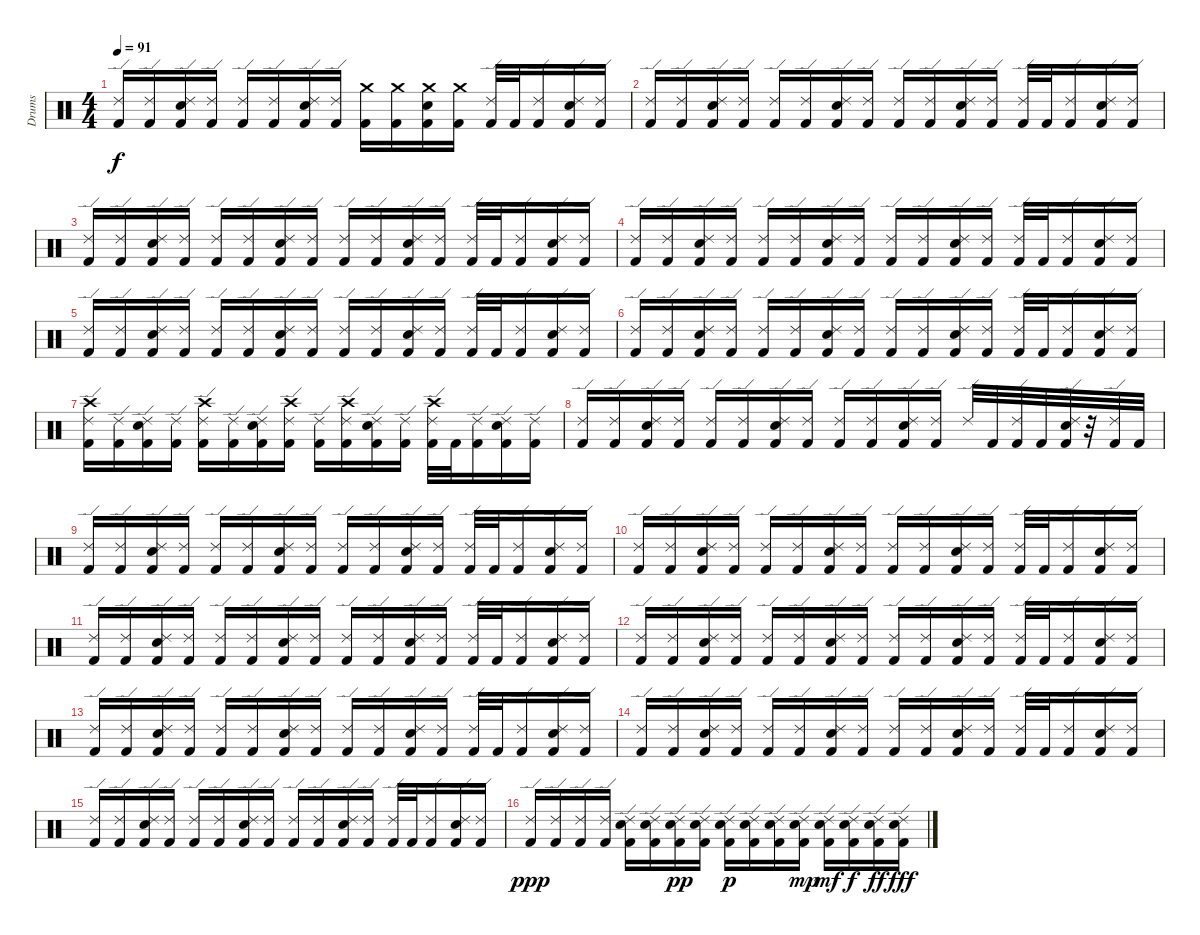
\track ("Drums" "Drums") {instrument percussion}
\staff {score}
\articulation defaults
\ts (4 4)
\tempo 91
\clef neutral
\ks c
("Ride (edge) 2" "Kick (hit) 2").16{dy f} ("Ride (edge) 2" "Kick (hit) 2").16 ("Ride (edge) 2" "Snare (hit) 2" "Kick (hit) 2").16 ("Ride (edge) 2" "Kick (hit) 2").16 ("Ride (edge) 2" "Kick (hit) 2").16 ("Ride (edge) 2" "Kick (hit) 2").16 ("Ride (edge) 2" "Snare (hit) 2" "Kick (hit) 2").16 ("Ride (edge) 2" "Kick (hit) 2").16 ("Crash medium (hit)" "Kick (hit) 2").16 ("Crash medium (hit)" "Kick (hit) 2").16 ("Crash medium (hit)" "Snare (hit) 2" "Kick (hit) 2").16 ("Crash medium (hit)" "Kick (hit) 2").16 ("Ride (edge) 2" "Kick (hit) 2").32 "Kick (hit) 2".32 ("Ride (edge) 2" "Kick (hit) 2").16 ("Ride (edge) 2" "Snare (hit) 2" "Kick (hit) 2").16 ("Ride (edge) 2" "Kick (hit) 2").16 |
("Ride (edge) 2" "Kick (hit) 2").16 ("Ride (edge) 2" "Kick (hit) 2").16 ("Ride (edge) 2" "Snare (hit) 2" "Kick (hit) 2").16 ("Ride (edge) 2" "Kick (hit) 2").16 ("Ride (edge) 2" "Kick (hit) 2").16 ("Ride (edge) 2" "Kick (hit) 2").16 ("Ride (edge) 2" "Snare (hit) 2" "Kick (hit) 2").16 ("Ride (edge) 2" "Kick (hit) 2").16 ("Ride (edge) 2" "Kick (hit) 2").16 ("Ride (edge) 2" "Kick (hit) 2").16 ("Ride (edge) 2" "Snare (hit) 2" "Kick (hit) 2").16 ("Ride (edge) 2" "Kick (hit) 2").16 ("Ride (edge) 2" "Kick (hit) 2").32 "Kick (hit) 2".32 ("Ride (edge) 2" "Kick (hit) 2").16 ("Ride (edge) 2" "Snare (hit) 2" "Kick (hit) 2").16 ("Ride (edge) 2" "Kick (hit) 2").16 |
("Ride (edge) 2" "Kick (hit) 2").16 ("Ride (edge) 2" "Kick (hit) 2").16 ("Ride (edge) 2" "Snare (hit) 2" "Kick (hit) 2").16 ("Ride (edge) 2" "Kick (hit) 2").16 ("Ride (edge) 2" "Kick (hit) 2").16 ("Ride (edge) 2" "Kick (hit) 2").16 ("Ride (edge) 2" "Snare (hit) 2" "Kick (hit) 2").16 ("Ride (edge) 2" "Kick (hit) 2").16 ("Ride (edge) 2" "Kick (hit) 2").16 ("Ride (edge) 2" "Kick (hit) 2").16 ("Ride (edge) 2" "Snare (hit) 2" "Kick (hit) 2").16 ("Ride (edge) 2" "Kick (hit) 2").16 ("Ride (edge) 2" "Kick (hit) 2").32 "Kick (hit) 2".32 ("Ride (edge) 2" "Kick (hit) 2").16 ("Ride (edge) 2" "Snare (hit) 2" "Kick (hit) 2").16 ("Ride (edge) 2" "Kick (hit) 2").16 |
("Ride (edge) 2" "Kick (hit) 2").16 ("Ride (edge) 2" "Kick (hit) 2").16 ("Ride (edge) 2" "Snare (hit) 2" "Kick (hit) 2").16 ("Ride (edge) 2" "Kick (hit) 2").16 ("Ride (edge) 2" "Kick (hit) 2").16 ("Ride (edge) 2" "Kick (hit) 2").16 ("Ride (edge) 2" "Snare (hit) 2" "Kick (hit) 2").16 ("Ride (edge) 2" "Kick (hit) 2").16 ("Ride (edge) 2" "Kick (hit) 2").16 ("Ride (edge) 2" "Kick (hit) 2").16 ("Ride (edge) 2" "Snare (hit) 2" "Kick (hit) 2").16 ("Ride (edge) 2" "Kick (hit) 2").16 ("Ride (edge) 2" "Kick (hit) 2").32 "Kick (hit) 2".32 ("Ride (edge) 2" "Kick (hit) 2").16 ("Ride (edge) 2" "Snare (hit) 2" "Kick (hit) 2").16 ("Ride (edge) 2" "Kick (hit) 2").16 |
("Ride (edge) 2" "Kick (hit) 2").16 ("Ride (edge) 2" "Kick (hit) 2").16 ("Ride (edge) 2" "Snare (hit) 2" "Kick (hit) 2").16 ("Ride (edge) 2" "Kick (hit) 2").16 ("Ride (edge) 2" "Kick (hit) 2").16 ("Ride (edge) 2" "Kick (hit) 2").16 ("Ride (edge) 2" "Snare (hit) 2" "Kick (hit) 2").16 ("Ride (edge) 2" "Kick (hit) 2").16 ("Ride (edge) 2" "Kick (hit) 2").16 ("Ride (edge) 2" "Kick (hit) 2").16 ("Ride (edge) 2" "Snare (hit) 2" "Kick (hit) 2").16 ("Ride (edge) 2" "Kick (hit) 2").16 ("Ride (edge) 2" "Kick (hit) 2").32 "Kick (hit) 2".32 ("Ride (edge) 2" "Kick (hit) 2").16 ("Ride (edge) 2" "Snare (hit) 2" "Kick (hit) 2").16 ("Ride (edge) 2" "Kick (hit) 2").16 |
("Ride (edge) 2" "Kick (hit) 2").16 ("Ride (edge) 2" "Kick (hit) 2").16 ("Ride (edge) 2" "Snare (hit) 2" "Kick (hit) 2").16 ("Ride (edge) 2" "Kick (hit) 2").16 ("Ride (edge) 2" "Kick (hit) 2").16 ("Ride (edge) 2" "Kick (hit) 2").16 ("Ride (edge) 2" "Snare (hit) 2" "Kick (hit) 2").16 ("Ride (edge) 2" "Kick (hit) 2").16 ("Ride (edge) 2" "Kick (hit) 2").16 ("Ride (edge) 2" "Kick (hit) 2").16 ("Ride (edge) 2" "Snare (hit) 2" "Kick (hit) 2").16 ("Ride (edge) 2" "Kick (hit) 2").16 ("Ride (edge) 2" "Kick (hit) 2").32 "Kick (hit) 2".32 ("Ride (edge) 2" "Kick (hit) 2").16 ("Ride (edge) 2" "Snare (hit) 2" "Kick (hit) 2").16 ("Ride (edge) 2" "Kick (hit) 2").16 |
("Crash high (hit)" "Ride (edge) 2" "Kick (hit) 2").16 ("Ride (edge) 2" "Kick (hit) 2").16 ("Ride (edge) 2" "Snare (hit) 2" "Kick (hit) 2").16 ("Ride (edge) 2" "Kick (hit) 2").16 ("Crash high (hit)" "Ride (edge) 2" "Kick (hit) 2").16 ("Ride (edge) 2" "Kick (hit) 2").16 ("Ride (edge) 2" "Snare (hit) 2" "Kick (hit) 2").16 ("Crash high (hit)" "Ride (edge) 2" "Kick (hit) 2").16 ("Ride (edge) 2" "Kick (hit) 2").16 ("Crash high (hit)" "Ride (edge) 2" "Kick (hit) 2").16 ("Ride (edge) 2" "Snare (hit) 2" "Kick (hit) 2").16 ("Ride (edge) 2" "Kick (hit) 2").16 ("Crash high (hit)" "Ride (edge) 2" "Kick (hit) 2").32 "Kick (hit) 2".32 ("Ride (edge) 2" "Kick (hit) 2").16 ("Ride (edge) 2" "Snare (hit) 2" "Kick (hit) 2").16 ("Ride (edge) 2" "Kick (hit) 2").16 |
("Ride (edge) 2" "Kick (hit) 2").16 ("Ride (edge) 2" "Kick (hit) 2").16 ("Ride (edge) 2" "Snare (hit) 2" "Kick (hit) 2").16 ("Ride (edge) 2" "Kick (hit) 2").16 ("Ride (edge) 2" "Kick (hit) 2").16 ("Ride (edge) 2" "Kick (hit) 2").16 ("Ride (edge) 2" "Snare (hit) 2" "Kick (hit) 2").16 ("Ride (edge) 2" "Kick (hit) 2").16 ("Ride (edge) 2" "Kick (hit) 2").16 ("Ride (edge) 2" "Kick (hit) 2").16 ("Ride (edge) 2" "Snare (hit) 2" "Kick (hit) 2").16 ("Ride (edge) 2" "Kick (hit) 2").16 "Ride (edge) 2".32 "Kick (hit) 2".32 ("Ride (edge) 2" "Kick (hit) 2").32 "Kick (hit) 2".32 ("Ride (edge) 2" "Snare (hit) 2" "Kick (hit) 2").32 r.32 ("Ride (edge) 2" "Kick (hit) 2").32 "Kick (hit) 2".32 |
("Ride (edge) 2" "Kick (hit) 2").16 ("Ride (edge) 2" "Kick (hit) 2").16 ("Ride (edge) 2" "Snare (hit) 2" "Kick (hit) 2").16 ("Ride (edge) 2" "Kick (hit) 2").16 ("Ride (edge) 2" "Kick (hit) 2").16 ("Ride (edge) 2" "Kick (hit) 2").16 ("Ride (edge) 2" "Snare (hit) 2" "Kick (hit) 2").16 ("Ride (edge) 2" "Kick (hit) 2").16 ("Ride (edge) 2" "Kick (hit) 2").16 ("Ride (edge) 2" "Kick (hit) 2").16 ("Ride (edge) 2" "Snare (hit) 2" "Kick (hit) 2").16 ("Ride (edge) 2" "Kick (hit) 2").16 ("Ride (edge) 2" "Kick (hit) 2").32 "Kick (hit) 2".32 ("Ride (edge) 2" "Kick (hit) 2").16 ("Ride (edge) 2" "Snare (hit) 2" "Kick (hit) 2").16 ("Ride (edge) 2" "Kick (hit) 2").16 |
("Ride (edge) 2" "Kick (hit) 2").16 ("Ride (edge) 2" "Kick (hit) 2").16 ("Ride (edge) 2" "Snare (hit) 2" "Kick (hit) 2").16 ("Ride (edge) 2" "Kick (hit) 2").16 ("Ride (edge) 2" "Kick (hit) 2").16 ("Ride (edge) 2" "Kick (hit) 2").16 ("Ride (edge) 2" "Snare (hit) 2" "Kick (hit) 2").16 ("Ride (edge) 2" "Kick (hit) 2").16 ("Ride (edge) 2" "Kick (hit) 2").16 ("Ride (edge) 2" "Kick (hit) 2").16 ("Ride (edge) 2" "Snare (hit) 2" "Kick (hit) 2").16 ("Ride (edge) 2" "Kick (hit) 2").16 ("Ride (edge) 2" "Kick (hit) 2").32 "Kick (hit) 2".32 ("Ride (edge) 2" "Kick (hit) 2").16 ("Ride (edge) 2" "Snare (hit) 2" "Kick (hit) 2").16 ("Ride (edge) 2" "Kick (hit) 2").16 |
("Ride (edge) 2" "Kick (hit) 2").16 ("Ride (edge) 2" "Kick (hit) 2").16 ("Ride (edge) 2" "Snare (hit) 2" "Kick (hit) 2").16 ("Ride (edge) 2" "Kick (hit) 2").16 ("Ride (edge) 2" "Kick (hit) 2").16 ("Ride (edge) 2" "Kick (hit) 2").16 ("Ride (edge) 2" "Snare (hit) 2" "Kick (hit) 2").16 ("Ride (edge) 2" "Kick (hit) 2").16 ("Ride (edge) 2" "Kick (hit) 2").16 ("Ride (edge) 2" "Kick (hit) 2").16 ("Ride (edge) 2" "Snare (hit) 2" "Kick (hit) 2").16 ("Ride (edge) 2" "Kick (hit) 2").16 ("Ride (edge) 2" "Kick (hit) 2").32 "Kick (hit) 2".32 ("Ride (edge) 2" "Kick (hit) 2").16 ("Ride (edge) 2" "Snare (hit) 2" "Kick (hit) 2").16 ("Ride (edge) 2" "Kick (hit) 2").16 |
("Ride (edge) 2" "Kick (hit) 2").16 ("Ride (edge) 2" "Kick (hit) 2").16 ("Ride (edge) 2" "Snare (hit) 2" "Kick (hit) 2").16 ("Ride (edge) 2" "Kick (hit) 2").16 ("Ride (edge) 2" "Kick (hit) 2").16 ("Ride (edge) 2" "Kick (hit) 2").16 ("Ride (edge) 2" "Snare (hit) 2" "Kick (hit) 2").16 ("Ride (edge) 2" "Kick (hit) 2").16 ("Ride (edge) 2" "Kick (hit) 2").16 ("Ride (edge) 2" "Kick (hit) 2").16 ("Ride (edge) 2" "Snare (hit) 2" "Kick (hit) 2").16 ("Ride (edge) 2" "Kick (hit) 2").16 ("Ride (edge) 2" "Kick (hit) 2").32 "Kick (hit) 2".32 ("Ride (edge) 2" "Kick (hit) 2").16 ("Ride (edge) 2" "Snare (hit) 2" "Kick (hit) 2").16 ("Ride (edge) 2" "Kick (hit) 2").16 |
("Ride (edge) 2" "Kick (hit) 2").16 ("Ride (edge) 2" "Kick (hit) 2").16 ("Ride (edge) 2" "Snare (hit) 2" "Kick (hit) 2").16 ("Ride (edge) 2" "Kick (hit) 2").16 ("Ride (edge) 2" "Kick (hit) 2").16 ("Ride (edge) 2" "Kick (hit) 2").16 ("Ride (edge) 2" "Snare (hit) 2" "Kick (hit) 2").16 ("Ride (edge) 2" "Kick (hit) 2").16 ("Ride (edge) 2" "Kick (hit) 2").16 ("Ride (edge) 2" "Kick (hit) 2").16 ("Ride (edge) 2" "Snare (hit) 2" "Kick (hit) 2").16 ("Ride (edge) 2" "Kick (hit) 2").16 ("Ride (edge) 2" "Kick (hit) 2").32 "Kick (hit) 2".32 ("Ride (edge) 2" "Kick (hit) 2").16 ("Ride (edge) 2" "Snare (hit) 2" "Kick (hit) 2").16 ("Ride (edge) 2" "Kick (hit) 2").16 |
("Ride (edge) 2" "Kick (hit) 2").16 ("Ride (edge) 2" "Kick (hit) 2").16 ("Ride (edge) 2" "Snare (hit) 2" "Kick (hit) 2").16 ("Ride (edge) 2" "Kick (hit) 2").16 ("Ride (edge) 2" "Kick (hit) 2").16 ("Ride (edge) 2" "Kick (hit) 2").16 ("Ride (edge) 2" "Snare (hit) 2" "Kick (hit) 2").16 ("Ride (edge) 2" "Kick (hit) 2").16 ("Ride (edge) 2" "Kick (hit) 2").16 ("Ride (edge) 2" "Kick (hit) 2").16 ("Ride (edge) 2" "Snare (hit) 2" "Kick (hit) 2").16 ("Ride (edge) 2" "Kick (hit) 2").16 ("Ride (edge) 2" "Kick (hit) 2").32 "Kick (hit) 2".32 ("Ride (edge) 2" "Kick (hit) 2").16 ("Ride (edge) 2" "Snare (hit) 2" "Kick (hit) 2").16 ("Ride (edge) 2" "Kick (hit) 2").16 |
("Ride (edge) 2" "Kick (hit) 2").16 ("Ride (edge) 2" "Kick (hit) 2").16 ("Ride (edge) 2" "Snare (hit) 2" "Kick (hit) 2").16 ("Ride (edge) 2" "Kick (hit) 2").16 ("Ride (edge) 2" "Kick (hit) 2").16 ("Ride (edge) 2" "Kick (hit) 2").16 ("Ride (edge) 2" "Snare (hit) 2" "Kick (hit) 2").16 ("Ride (edge) 2" "Kick (hit) 2").16 ("Ride (edge) 2" "Kick (hit) 2").16 ("Ride (edge) 2" "Kick (hit) 2").16 ("Ride (edge) 2" "Snare (hit) 2" "Kick (hit) 2").16 ("Ride (edge) 2" "Kick (hit) 2").16 ("Ride (edge) 2" "Kick (hit) 2").32 "Kick (hit) 2".32 ("Ride (edge) 2" "Kick (hit) 2").16 ("Ride (edge) 2" "Snare (hit) 2" "Kick (hit) 2").16 ("Ride (edge) 2" "Kick (hit) 2").16 |
("Ride (edge) 2" "Kick (hit) 2").16{dy ppp} ("Ride (edge) 2" "Kick (hit) 2").16 ("Ride (edge) 2" "Kick (hit) 2").16 ("Ride (edge) 2" "Kick (hit) 2").16 ("Ride (edge) 2" "Snare (hit) 2" "Kick (hit) 2").16 ("Ride (edge) 2" "Snare (hit) 2" "Kick (hit) 2").16 ("Ride (edge) 2" "Snare (hit) 2" "Kick (hit) 2").16{dy pp} ("Ride (edge) 2" "Snare (hit) 2" "Kick (hit) 2").16 ("Ride (edge) 2" "Snare (hit) 2" "Kick (hit) 2").16{dy p} ("Ride (edge) 2" "Snare (hit) 2" "Kick (hit) 2").16 ("Ride (edge) 2" "Snare (hit) 2" "Kick (hit) 2").16 ("Ride (edge) 2" "Snare (hit) 2" "Kick (hit) 2").16{dy mp} ("Ride (edge) 2" "Snare (hit) 2" "Kick (hit) 2").16{dy mf} ("Ride (edge) 2" "Snare (hit) 2" "Kick (hit) 2").16{dy f} ("Ride (edge) 2" "Snare (hit) 2" "Kick (hit) 2").16{dy ff} ("Ride (edge) 2" "Snare (hit) 2" "Kick (hit) 2").16{dy fff}
